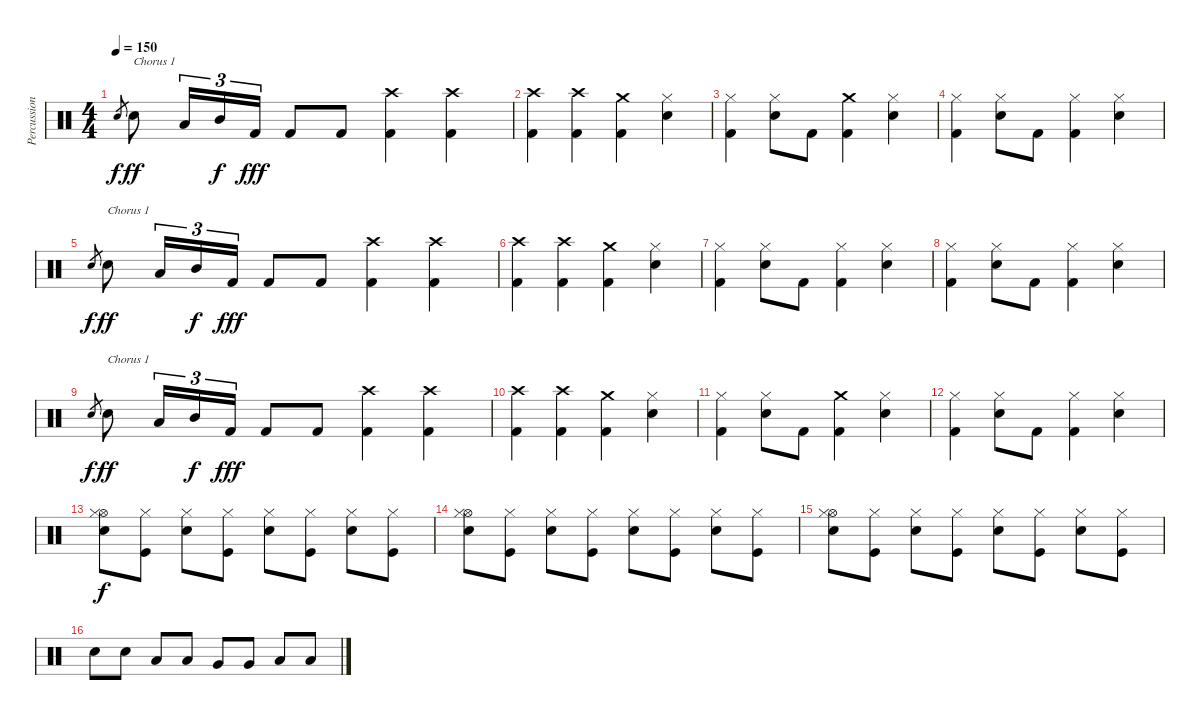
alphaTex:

\track ("Percussion" "Percussion") {instrument percussion}
\staff {score}
\articulation defaults
\ts (4 4)
\tempo 150
\clef neutral
\ks c "Snare (hit) 2"{sl}.8{gr dy f} "Snare (hit) 2".8{txt "Chorus 1" dy ff} "Low Tom (hit)".16{tu (3 2)} "Mid Tom (hit)".16{tu (3 2) dy f} "Kick (hit) 2".16{tu (3 2) dy fff} "Kick (hit) 2".8 "Kick (hit) 2".8
("Crash high (hit)" "Kick (hit) 2").4 ("Crash high (hit)" "Kick (hit) 2").4 |
("Crash high (hit)" "Kick (hit) 2").4 ("Crash high (hit)" "Kick (hit) 2").4 ("Kick (hit) 2" "Crash medium (hit)").4 ("Hi-Hat (closed)" "Snare (hit) 2").4 |
("Hi-Hat (closed)" "Kick (hit) 2").4 ("Snare (hit) 2" "Hi-Hat (closed)").8 "Kick (hit) 2".8 ("Kick (hit) 2" "Crash medium (hit)").4 ("Hi-Hat (closed)" "Snare (hit) 2").4 |
("Hi-Hat (closed)" "Kick (hit) 2").4 ("Snare (hit) 2" "Hi-Hat (closed)").8 "Kick (hit) 2".8 ("Kick (hit) 2" "Hi-Hat (closed)").4 ("Hi-Hat (closed)" "Snare (hit) 2").4 |
"Snare (hit) 2"{sl}.8{gr dy f} "Snare (hit) 2".8{txt "Chorus 1" dy ff} "Low Tom (hit)".16{tu (3 2)} "Mid Tom (hit)".16{tu (3 2) dy f} "Kick (hit) 2".16{tu (3 2) dy fff} "Kick (hit) 2".8 "Kick (hit) 2".8 ("Crash high (hit)" "Kick (hit) 2").4 ("Crash high (hit)" "Kick (hit) 2").4 |
("Crash high (hit)" "Kick (hit) 2").4 ("Crash high (hit)" "Kick (hit) 2").4 ("Kick (hit) 2" "Crash medium (hit)").4 ("Hi-Hat (closed)" "Snare (hit) 2").4 |
("Hi-Hat (closed)" "Kick (hit) 2").4 ("Snare (hit) 2" "Hi-Hat (closed)").8 "Kick (hit) 2".8 ("Kick (hit) 2" "Hi-Hat (closed)").4 ("Hi-Hat (closed)" "Snare (hit) 2").4 |
("Hi-Hat (closed)" "Kick (hit) 2").4 ("Snare (hit) 2" "Hi-Hat (closed)").8 "Kick (hit) 2".8 ("Kick (hit) 2" "Hi-Hat (closed)").4 ("Hi-Hat (closed)" "Snare (hit) 2").4 |
"Snare (hit) 2"{sl}.8{gr dy f} "Snare (hit) 2".8{txt "Chorus 1" dy ff} "Low Tom (hit)".16{tu (3 2)} "Mid Tom (hit)".16{tu (3 2) dy f} "Kick (hit) 2".16{tu (3 2) dy fff} "Kick (hit) 2".8 "Kick (hit) 2".8 ("Crash high (hit)" "Kick (hit) 2").4 ("Crash high (hit)" "Kick (hit) 2").4 |
("Crash high (hit)" "Kick (hit) 2").4 ("Crash high (hit)" "Kick (hit) 2").4 ("Kick (hit) 2" "Crash medium (hit)").4 ("Hi-Hat (closed)" "Snare (hit) 2").4 |
("Hi-Hat (closed)" "Kick (hit) 2").4 ("Snare (hit) 2" "Hi-Hat (closed)").8 "Kick (hit) 2".8 ("Kick (hit) 2" "Crash medium (hit)").4 ("Hi-Hat (closed)" "Snare (hit) 2").4 |
("Hi-Hat (closed)" "Kick (hit) 2").4 ("Snare (hit) 2" "Hi-Hat (closed)").8 "Kick (hit) 2".8 ("Kick (hit) 2" "Hi-Hat (closed)").4 ("Hi-Hat (closed)" "Snare (hit) 2").4 |
("Hi-Hat (open)" "Hi-Hat (closed)" "Electric Snare (hit)").8{dy f} ("Hi-Hat (closed)" "Kick (hit)").8 ("Hi-Hat (closed)" "Electric Snare (hit)").8 ("Hi-Hat (closed)" "Kick (hit)").8 ("Hi-Hat (closed)" "Electric Snare (hit)").8 ("Hi-Hat (closed)" "Kick (hit)").8 ("Hi-Hat (closed)" "Electric Snare (hit)").8 ("Hi-Hat (closed)" "Kick (hit)").8 |
("Hi-Hat (open)" "Hi-Hat (closed)" "Electric Snare (hit)").8 ("Hi-Hat (closed)" "Kick (hit)").8 ("Hi-Hat (closed)" "Electric Snare (hit)").8 ("Hi-Hat (closed)" "Kick (hit)").8 ("Hi-Hat (closed)" "Electric Snare (hit)").8 ("Hi-Hat (closed)" "Kick (hit)").8 ("Hi-Hat (closed)" "Electric Snare (hit)").8 ("Hi-Hat (closed)" "Kick (hit)").8 |
("Hi-Hat (open)" "Hi-Hat (closed)" "Electric Snare (hit)").8 ("Hi-Hat (closed)" "Kick (hit)").8 ("Hi-Hat (closed)" "Electric Snare (hit)").8 ("Hi-Hat (closed)" "Kick (hit)").8 ("Hi-Hat (closed)" "Electric Snare (hit)").8 ("Hi-Hat (closed)" "Kick (hit)").8 ("Hi-Hat (closed)" "Electric Snare (hit)").8 ("Hi-Hat (closed)" "Kick (hit)").8 |
"Electric Snare (hit)".8 "Electric Snare (hit)".8 "Low Tom (hit)".8 "Low Tom (hit)".8 "Very Low Tom (hit)".8 "Very Low Tom (hit)".8 "Low Floor Tom (hit)".8 "Low Floor Tom (hit)".8
